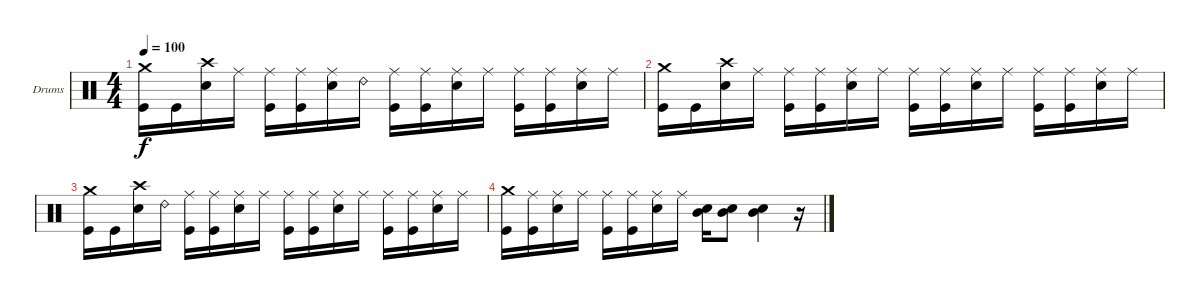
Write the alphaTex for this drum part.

\bracketExtendMode groupsimilarinstruments
\firstSystemTrackNameOrientation horizontal
\otherSystemsTrackNameOrientation horizontal
\track ("Drumkit" "Drums") {instrument percussion}
\staff {score}
\articulation defaults
\ts (4 4)
\tempo 100
\clef neutral
\ks c
("Crash medium (hit)" "Kick (hit)").16{dy f} "Kick (hit)".16 ("Crash high (hit)" "Snare (hit) 2").16 "Ride (middle)".16 ("Ride (middle)" "Kick (hit)").16 ("Ride (middle)" "Kick (hit)").16 ("Ride (middle)" "Snare (hit) 2").16 "Ride (bell) 2".16 ("Ride (middle)" "Kick (hit)").16 ("Ride (middle)" "Kick (hit)").16 ("Ride (middle)" "Snare (hit) 2").16 "Ride (middle)".16 ("Ride (middle)" "Kick (hit)").16 ("Ride (middle)" "Kick (hit)").16 ("Ride (middle)" "Snare (hit) 2").16 "Ride (middle)".16 |
("Crash medium (hit)" "Kick (hit)").16 "Kick (hit)".16 ("Crash high (hit)" "Snare (hit) 2").16 "Ride (middle)".16 ("Ride (middle)" "Kick (hit)").16 ("Ride (middle)" "Kick (hit)").16 ("Ride (middle)" "Snare (hit) 2").16 "Ride (middle)".16 ("Ride (middle)" "Kick (hit)").16 ("Ride (middle)" "Kick (hit)").16 ("Ride (middle)" "Snare (hit) 2").16 "Ride (middle)".16 ("Ride (middle)" "Kick (hit)").16 ("Ride (middle)" "Kick (hit)").16 ("Ride (middle)" "Snare (hit) 2").16 "Ride (middle)".16 |
("Crash medium (hit)" "Kick (hit)").16 "Kick (hit)".16 ("Crash high (hit)" "Snare (hit) 2").16 "Ride (bell) 2".16 ("Ride (middle)" "Kick (hit)").16 ("Ride (middle)" "Kick (hit)").16 ("Ride (middle)" "Snare (hit) 2").16 "Ride (middle)".16 ("Ride (middle)" "Kick (hit)").16 ("Ride (middle)" "Kick (hit)").16 ("Ride (middle)" "Snare (hit) 2").16 "Ride (middle)".16 ("Ride (middle)" "Kick (hit)").16 ("Ride (middle)" "Kick (hit)").16 ("Ride (middle)" "Snare (hit) 2").16 "Ride (middle)".16 |
("Crash medium (hit)" "Kick (hit)").16 ("Ride (middle)" "Kick (hit)").16 ("Ride (middle)" "Snare (hit) 2").16 "Ride (middle)".16 ("Ride (middle)" "Kick (hit)").16 ("Ride (middle)" "Kick (hit)").16 ("Ride (middle)" "Snare (hit) 2").16 "Ride (middle)".16 ("Mid Tom (hit)" "Snare (hit) 2").16 ("Mid Tom (hit)" "Snare (hit) 2").8 ("Mid Tom (hit)" "Snare (hit) 2").4 r.16
